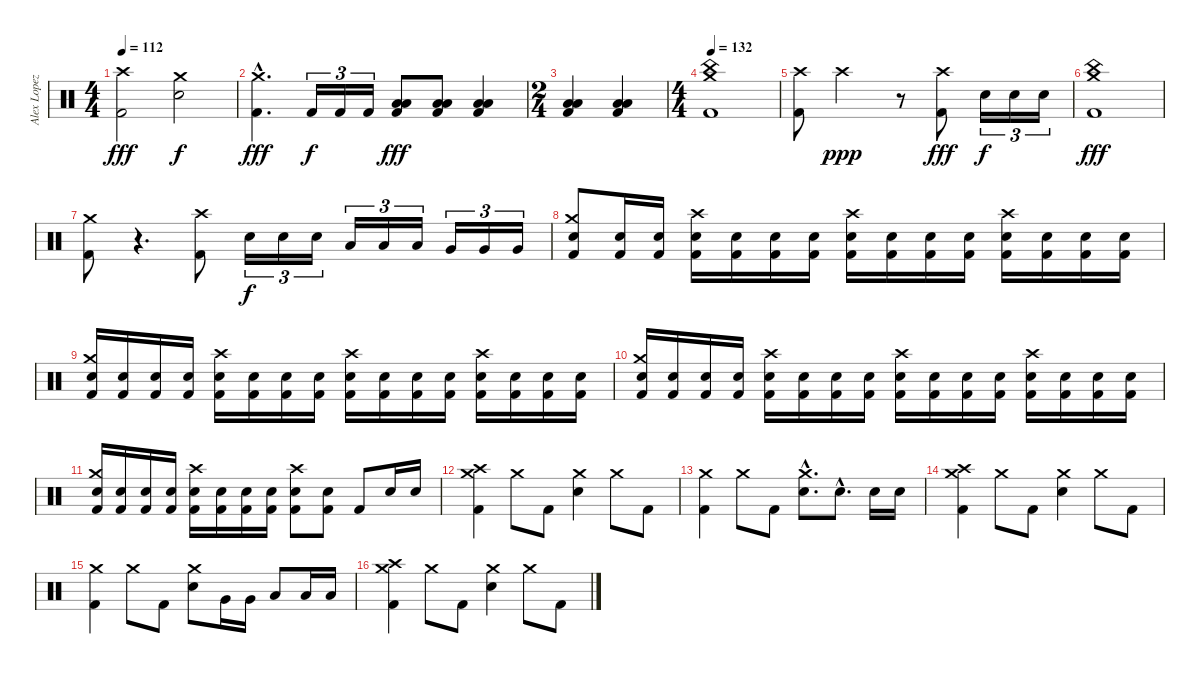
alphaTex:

\track ("Alex Lopez" "Alex Lopez") {instrument percussion}
\staff {score}
\articulation defaults
\ts (4 4)
\tempo 112
\clef neutral
\ks c
("Crash high (hit)" "Kick (hit) 2").2{dy fff} ("Crash medium (hit)" "Snare (hit) 2").2{dy f} |
("Crash medium (hit)"{hac} "Kick (hit) 2"{hac}).4{d dy fff} "Kick (hit) 2".16{tu (3 2) dy f} "Kick (hit) 2".16{tu (3 2)} "Kick (hit) 2".16{tu (3 2)} ("Low Tom (hit)" "Low Floor Tom (hit)" "Kick (hit) 2").8{dy fff} ("Low Tom (hit)" "Low Floor Tom (hit)" "Kick (hit) 2").8 ("Low Tom (hit)" "Low Floor Tom (hit)" "Kick (hit) 2").4 |
\ts (2 4)
("Low Tom (hit)" "Low Floor Tom (hit)" "Kick (hit) 2").4 ("Low Tom (hit)" "Low Floor Tom (hit)" "Kick (hit) 2").4 |
\ts (4 4)
\tempo 132
("Crash medium (hit)" "China (hit)" "Kick (hit) 2").1 |
("Crash high (hit)" "Kick (hit) 2").8 "Crash high (hit)".2{dy ppp} r.8 ("Crash high (hit)" "Kick (hit) 2").8{dy fff} "Snare (hit) 2".16{tu (3 2) dy f} "Snare (hit) 2".16{tu (3 2)} "Snare (hit) 2".16{tu (3 2)} |
("Crash medium (hit)" "China (hit)" "Kick (hit) 2").1{dy fff} |
("Crash medium (hit)" "Kick (hit) 2").8 r.4{d} ("Crash high (hit)" "Kick (hit) 2").8 "Snare (hit) 2".16{tu (3 2) dy f} "Snare (hit) 2".16{tu (3 2)} "Snare (hit) 2".16{tu (3 2)} "Low Tom (hit)".16{tu (3 2)} "Low Tom (hit)".16{tu (3 2)} "Low Tom (hit)".16{tu (3 2)} "Very Low Tom (hit)".16{tu (3 2)} "Very Low Tom (hit)".16{tu (3 2)} "Very Low Tom (hit)".16{tu (3 2)} |
("Crash medium (hit)" "Snare (hit) 2" "Kick (hit) 2").8 ("Snare (hit) 2" "Kick (hit) 2").16 ("Snare (hit) 2" "Kick (hit) 2").16 ("Crash high (hit)" "Snare (hit) 2" "Kick (hit) 2").16 ("Snare (hit) 2" "Kick (hit) 2").16 ("Snare (hit) 2" "Kick (hit) 2").16 ("Snare (hit) 2" "Kick (hit) 2").16 ("Crash high (hit)" "Snare (hit) 2" "Kick (hit) 2").16 ("Snare (hit) 2" "Kick (hit) 2").16 ("Snare (hit) 2" "Kick (hit) 2").16 ("Snare (hit) 2" "Kick (hit) 2").16 ("Crash high (hit)" "Snare (hit) 2" "Kick (hit) 2").16 ("Snare (hit) 2" "Kick (hit) 2").16 ("Snare (hit) 2" "Kick (hit) 2").16 ("Snare (hit) 2" "Kick (hit) 2").16 |
("Crash medium (hit)" "Snare (hit) 2" "Kick (hit) 2").16 ("Snare (hit) 2" "Kick (hit) 2").16 ("Snare (hit) 2" "Kick (hit) 2").16 ("Snare (hit) 2" "Kick (hit) 2").16 ("Crash high (hit)" "Snare (hit) 2" "Kick (hit) 2").16 ("Snare (hit) 2" "Kick (hit) 2").16 ("Snare (hit) 2" "Kick (hit) 2").16 ("Snare (hit) 2" "Kick (hit) 2").16 ("Crash high (hit)" "Snare (hit) 2" "Kick (hit) 2").16 ("Snare (hit) 2" "Kick (hit) 2").16 ("Snare (hit) 2" "Kick (hit) 2").16 ("Snare (hit) 2" "Kick (hit) 2").16 ("Crash high (hit)" "Snare (hit) 2" "Kick (hit) 2").16 ("Snare (hit) 2" "Kick (hit) 2").16 ("Snare (hit) 2" "Kick (hit) 2").16 ("Snare (hit) 2" "Kick (hit) 2").16 |
("Crash medium (hit)" "Snare (hit) 2" "Kick (hit) 2").16 ("Snare (hit) 2" "Kick (hit) 2").16 ("Snare (hit) 2" "Kick (hit) 2").16 ("Snare (hit) 2" "Kick (hit) 2").16 ("Crash high (hit)" "Snare (hit) 2" "Kick (hit) 2").16 ("Snare (hit) 2" "Kick (hit) 2").16 ("Snare (hit) 2" "Kick (hit) 2").16 ("Snare (hit) 2" "Kick (hit) 2").16 ("Crash high (hit)" "Snare (hit) 2" "Kick (hit) 2").16 ("Snare (hit) 2" "Kick (hit) 2").16 ("Snare (hit) 2" "Kick (hit) 2").16 ("Snare (hit) 2" "Kick (hit) 2").16 ("Crash high (hit)" "Snare (hit) 2" "Kick (hit) 2").16 ("Snare (hit) 2" "Kick (hit) 2").16 ("Snare (hit) 2" "Kick (hit) 2").16 ("Snare (hit) 2" "Kick (hit) 2").16 |
("Crash medium (hit)" "Snare (hit) 2" "Kick (hit) 2").16 ("Snare (hit) 2" "Kick (hit) 2").16 ("Snare (hit) 2" "Kick (hit) 2").16 ("Snare (hit) 2" "Kick (hit) 2").16 ("Crash high (hit)" "Snare (hit) 2" "Kick (hit) 2").16 ("Snare (hit) 2" "Kick (hit) 2").16 ("Snare (hit) 2" "Kick (hit) 2").16 ("Snare (hit) 2" "Kick (hit) 2").16 ("Crash high (hit)" "Snare (hit) 2" "Kick (hit) 2").8 ("Snare (hit) 2" "Kick (hit) 2").8 "Kick (hit) 2".8 "Snare (hit) 2".16 "Snare (hit) 2".16 |
("Crash medium (hit)" "Crash high (hit)" "Kick (hit) 2").4 "Crash medium (hit)".8 "Kick (hit) 2".8 ("Crash medium (hit)" "Snare (hit) 2").4 "Crash medium (hit)".8 "Kick (hit) 2".8 |
("Crash medium (hit)" "Kick (hit) 2").4 "Crash medium (hit)".8 "Kick (hit) 2".8 ("Crash medium (hit)"{hac} "Snare (hit) 2"{hac}).8{d} "Snare (hit) 2"{hac}.8{d} "Snare (hit) 2".16 "Snare (hit) 2".16 |
("Crash medium (hit)" "Crash high (hit)" "Kick (hit) 2").4 "Crash medium (hit)".8 "Kick (hit) 2".8 ("Crash medium (hit)" "Snare (hit) 2").4 "Crash medium (hit)".8 "Kick (hit) 2".8 |
("Crash medium (hit)" "Kick (hit) 2").4 "Crash medium (hit)".8 "Kick (hit) 2".8 ("Crash medium (hit)" "Snare (hit) 2").8 "Very Low Tom (hit)".16 "Very Low Tom (hit)".16 "Low Tom (hit)".8 "Low Floor Tom (hit)".16 "Low Floor Tom (hit)".16 |
("Crash medium (hit)" "Crash high (hit)" "Kick (hit) 2").4 "Crash medium (hit)".8 "Kick (hit) 2".8 ("Crash medium (hit)" "Snare (hit) 2").4 "Crash medium (hit)".8 "Kick (hit) 2".8
